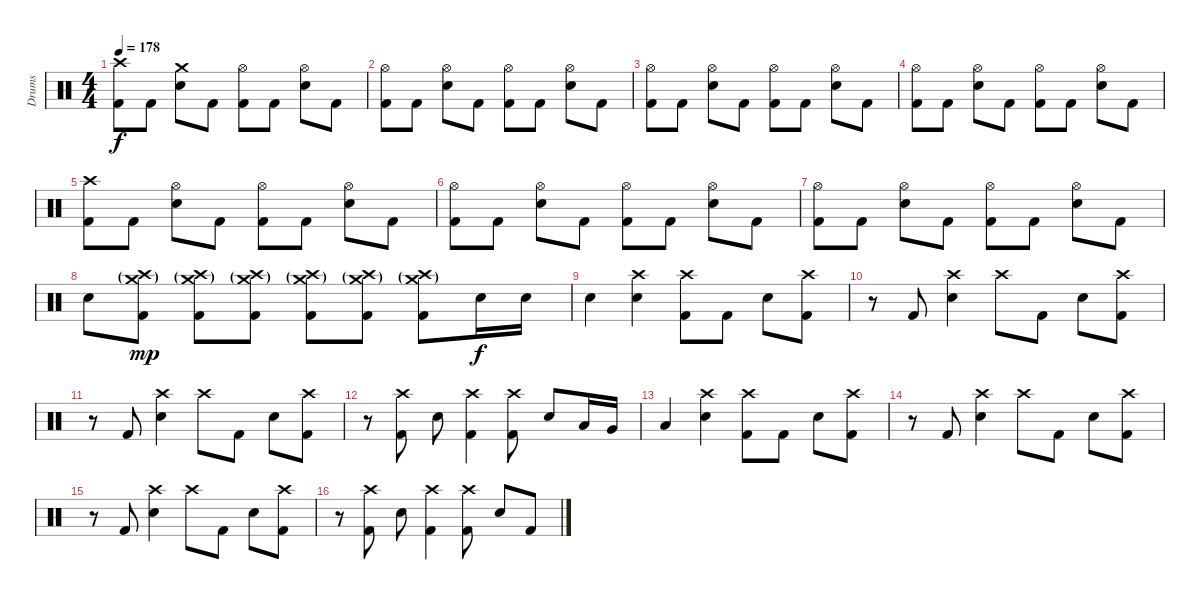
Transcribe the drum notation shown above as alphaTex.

\track ("Drums" "Drums") {instrument percussion}
\staff {score}
\articulation defaults
\ts (4 4)
\tempo 178
\clef neutral
\ks c
("Crash high (hit)" "Kick (hit) 2").8{dy f} "Kick (hit) 2".8 ("Crash medium (hit)" "Electric Snare (hit)").8 "Kick (hit) 2".8 ("Hi-Hat (open)" "Kick (hit) 2").8 "Kick (hit) 2".8 ("Hi-Hat (open)" "Electric Snare (hit)").8 "Kick (hit) 2".8 |
("Hi-Hat (open)" "Kick (hit) 2").8 "Kick (hit) 2".8 ("Hi-Hat (open)" "Electric Snare (hit)").8 "Kick (hit) 2".8 ("Hi-Hat (open)" "Kick (hit) 2").8 "Kick (hit) 2".8 ("Hi-Hat (open)" "Electric Snare (hit)").8 "Kick (hit) 2".8 |
("Hi-Hat (open)" "Kick (hit) 2").8 "Kick (hit) 2".8 ("Hi-Hat (open)" "Electric Snare (hit)").8 "Kick (hit) 2".8 ("Hi-Hat (open)" "Kick (hit) 2").8 "Kick (hit) 2".8 ("Hi-Hat (open)" "Electric Snare (hit)").8 "Kick (hit) 2".8 |
("Hi-Hat (open)" "Kick (hit) 2").8 "Kick (hit) 2".8 ("Hi-Hat (open)" "Electric Snare (hit)").8 "Kick (hit) 2".8 ("Hi-Hat (open)" "Kick (hit) 2").8 "Kick (hit) 2".8 ("Hi-Hat (open)" "Electric Snare (hit)").8 "Kick (hit) 2".8 |
("Crash high (hit)" "Kick (hit) 2").8 "Kick (hit) 2".8 ("Hi-Hat (open)" "Electric Snare (hit)").8 "Kick (hit) 2".8 ("Hi-Hat (open)" "Kick (hit) 2").8 "Kick (hit) 2".8 ("Hi-Hat (open)" "Electric Snare (hit)").8 "Kick (hit) 2".8 |
("Hi-Hat (open)" "Kick (hit) 2").8 "Kick (hit) 2".8 ("Hi-Hat (open)" "Electric Snare (hit)").8 "Kick (hit) 2".8 ("Hi-Hat (open)" "Kick (hit) 2").8 "Kick (hit) 2".8 ("Hi-Hat (open)" "Electric Snare (hit)").8 "Kick (hit) 2".8 |
("Hi-Hat (open)" "Kick (hit) 2").8 "Kick (hit) 2".8 ("Hi-Hat (open)" "Electric Snare (hit)").8 "Kick (hit) 2".8 ("Hi-Hat (open)" "Kick (hit) 2").8 "Kick (hit) 2".8 ("Hi-Hat (open)" "Electric Snare (hit)").8 "Kick (hit) 2".8 |
"Electric Snare (hit)".8 ("Crash high (hit)"{g} "Crash medium (hit)"{g} "Kick (hit) 2").8{dy mp} ("Crash high (hit)"{g} "Crash medium (hit)"{g} "Kick (hit) 2").8 ("Crash high (hit)"{g} "Crash medium (hit)"{g} "Kick (hit) 2").8 ("Crash high (hit)"{g} "Crash medium (hit)"{g} "Kick (hit) 2").8 ("Crash high (hit)"{g} "Crash medium (hit)"{g} "Kick (hit) 2").8 ("Crash high (hit)"{g} "Crash medium (hit)"{g} "Kick (hit) 2").8 "Electric Snare (hit)".16{dy f} "Electric Snare (hit)".16 |
"Electric Snare (hit)".4 ("Crash high (hit)" "Electric Snare (hit)").4 ("Crash high (hit)" "Kick (hit) 2").8 "Kick (hit) 2".8 "Electric Snare (hit)".8 ("Crash high (hit)" "Kick (hit) 2").8 |
r.8 "Kick (hit) 2".8 ("Crash high (hit)" "Electric Snare (hit)").4 "Crash high (hit)".8 "Kick (hit) 2".8 "Electric Snare (hit)".8 ("Crash high (hit)" "Kick (hit) 2").8 |
r.8 "Kick (hit) 2".8 ("Crash high (hit)" "Electric Snare (hit)").4 "Crash high (hit)".8 "Kick (hit) 2".8 "Electric Snare (hit)".8 ("Crash high (hit)" "Kick (hit) 2").8 |
r.8 ("Crash high (hit)" "Kick (hit) 2").8 "Electric Snare (hit)".8 ("Crash high (hit)" "Kick (hit) 2").4 ("Crash high (hit)" "Kick (hit) 2").8 "Electric Snare (hit)".8 "Low Tom (hit)".16 "Very Low Tom (hit)".16 |
"Low Floor Tom (hit)".4 ("Crash high (hit)" "Electric Snare (hit)").4 ("Crash high (hit)" "Kick (hit) 2").8 "Kick (hit) 2".8 "Electric Snare (hit)".8 ("Crash high (hit)" "Kick (hit) 2").8 |
r.8 "Kick (hit) 2".8 ("Crash high (hit)" "Electric Snare (hit)").4 "Crash high (hit)".8 "Kick (hit) 2".8 "Electric Snare (hit)".8 ("Crash high (hit)" "Kick (hit) 2").8 |
r.8 "Kick (hit) 2".8 ("Crash high (hit)" "Electric Snare (hit)").4 "Crash high (hit)".8 "Kick (hit) 2".8 "Electric Snare (hit)".8 ("Crash high (hit)" "Kick (hit) 2").8 |
r.8 ("Crash high (hit)" "Kick (hit) 2").8 "Electric Snare (hit)".8 ("Crash high (hit)" "Kick (hit) 2").4 ("Crash high (hit)" "Kick (hit) 2").8 "Electric Snare (hit)".8 "Kick (hit) 2".8
